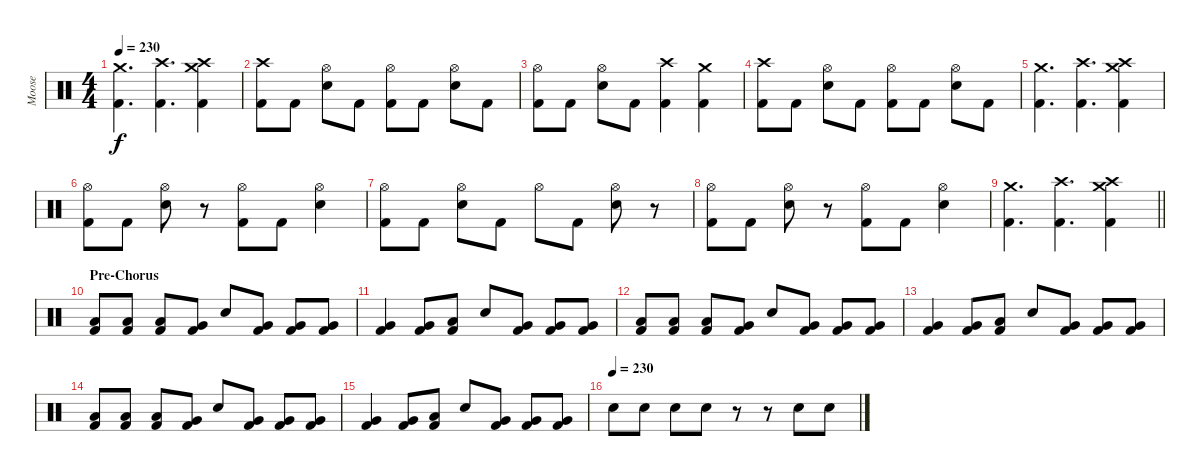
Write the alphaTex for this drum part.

\track ("Moose" "Moose") {instrument percussion}
\staff {score}
\articulation defaults
\ts (4 4)
\tempo 230
\clef neutral
\ks c
("Crash medium (hit)" "Kick (hit) 2").4{d dy f} ("Crash high (hit)" "Kick (hit) 2").4{d} ("Crash high (hit)" "Crash medium (hit)" "Kick (hit) 2").4 |
("Crash high (hit)" "Kick (hit) 2").8 "Kick (hit) 2".8 ("Hi-Hat (open)" "Snare (hit) 2").8 "Kick (hit) 2".8 ("Hi-Hat (open)" "Kick (hit) 2").8 "Kick (hit) 2".8 ("Hi-Hat (open)" "Snare (hit) 2").8 "Kick (hit) 2".8 |
("Hi-Hat (open)" "Kick (hit) 2").8 "Kick (hit) 2".8 ("Hi-Hat (open)" "Snare (hit) 2").8 "Kick (hit) 2".8 ("Crash high (hit)" "Kick (hit) 2").4 ("Crash medium (hit)" "Kick (hit) 2").4 |
("Crash high (hit)" "Kick (hit) 2").8 "Kick (hit) 2".8 ("Hi-Hat (open)" "Snare (hit) 2").8 "Kick (hit) 2".8 ("Hi-Hat (open)" "Kick (hit) 2").8 "Kick (hit) 2".8 ("Hi-Hat (open)" "Snare (hit) 2").8 "Kick (hit) 2".8 |
("Crash medium (hit)" "Kick (hit) 2").4{d} ("Crash high (hit)" "Kick (hit) 2").4{d} ("Crash high (hit)" "Crash medium (hit)" "Kick (hit) 2").4 |
("Hi-Hat (open)" "Kick (hit) 2").8 "Kick (hit) 2".8 ("Hi-Hat (open)" "Snare (hit) 2").8 r.8 ("Hi-Hat (open)" "Kick (hit) 2").8 "Kick (hit) 2".8 ("Hi-Hat (open)" "Snare (hit) 2").4 |
("Hi-Hat (open)" "Kick (hit) 2").8 "Kick (hit) 2".8 ("Hi-Hat (open)" "Snare (hit) 2").8 "Kick (hit) 2".8 "Hi-Hat (open)".8 "Kick (hit) 2".8 ("Hi-Hat (open)" "Snare (hit) 2").8 r.8 |
("Hi-Hat (open)" "Kick (hit) 2").8 "Kick (hit) 2".8 ("Hi-Hat (open)" "Snare (hit) 2").8 r.8 ("Hi-Hat (open)" "Kick (hit) 2").8 "Kick (hit) 2".8 ("Hi-Hat (open)" "Snare (hit) 2").4 |
\barLineRight lightlight
("Crash medium (hit)" "Kick (hit) 2").4{d} ("Crash high (hit)" "Kick (hit) 2").4{d} ("Crash high (hit)" "Crash medium (hit)" "Kick (hit) 2").4 |
\section ("" "Pre-Chorus")
("Low Tom (hit)" "Kick (hit) 2").8 ("Low Tom (hit)" "Kick (hit) 2").8 ("Low Tom (hit)" "Kick (hit) 2").8 ("Very Low Tom (hit)" "Kick (hit) 2").8 "Snare (hit) 2".8 ("Very Low Tom (hit)" "Kick (hit) 2").8 ("Very Low Tom (hit)" "Kick (hit) 2").8 ("Very Low Tom (hit)" "Kick (hit) 2").8 |
("Very Low Tom (hit)" "Kick (hit) 2").4 ("Very Low Tom (hit)" "Kick (hit) 2").8 ("Low Tom (hit)" "Kick (hit) 2").8 "Snare (hit) 2".8 ("Very Low Tom (hit)" "Kick (hit) 2").8 ("Very Low Tom (hit)" "Kick (hit) 2").8 ("Very Low Tom (hit)" "Kick (hit) 2").8 |
("Low Tom (hit)" "Kick (hit) 2").8 ("Low Tom (hit)" "Kick (hit) 2").8 ("Low Tom (hit)" "Kick (hit) 2").8 ("Very Low Tom (hit)" "Kick (hit) 2").8 "Snare (hit) 2".8 ("Very Low Tom (hit)" "Kick (hit) 2").8 ("Very Low Tom (hit)" "Kick (hit) 2").8 ("Very Low Tom (hit)" "Kick (hit) 2").8 |
("Very Low Tom (hit)" "Kick (hit) 2").4 ("Very Low Tom (hit)" "Kick (hit) 2").8 ("Low Tom (hit)" "Kick (hit) 2").8 "Snare (hit) 2".8 ("Very Low Tom (hit)" "Kick (hit) 2").8 ("Very Low Tom (hit)" "Kick (hit) 2").8 ("Very Low Tom (hit)" "Kick (hit) 2").8 |
("Low Tom (hit)" "Kick (hit) 2").8 ("Low Tom (hit)" "Kick (hit) 2").8 ("Low Tom (hit)" "Kick (hit) 2").8 ("Very Low Tom (hit)" "Kick (hit) 2").8 "Snare (hit) 2".8 ("Very Low Tom (hit)" "Kick (hit) 2").8 ("Very Low Tom (hit)" "Kick (hit) 2").8 ("Very Low Tom (hit)" "Kick (hit) 2").8 |
("Very Low Tom (hit)" "Kick (hit) 2").4 ("Very Low Tom (hit)" "Kick (hit) 2").8 ("Low Tom (hit)" "Kick (hit) 2").8 "Snare (hit) 2".8 ("Very Low Tom (hit)" "Kick (hit) 2").8 ("Very Low Tom (hit)" "Kick (hit) 2").8 ("Very Low Tom (hit)" "Kick (hit) 2").8 |
\tempo (230)
"Snare (hit) 2".8 "Snare (hit) 2".8 "Snare (hit) 2".8 "Snare (hit) 2".8 r.8 r.8 "Snare (hit) 2".8 "Snare (hit) 2".8
